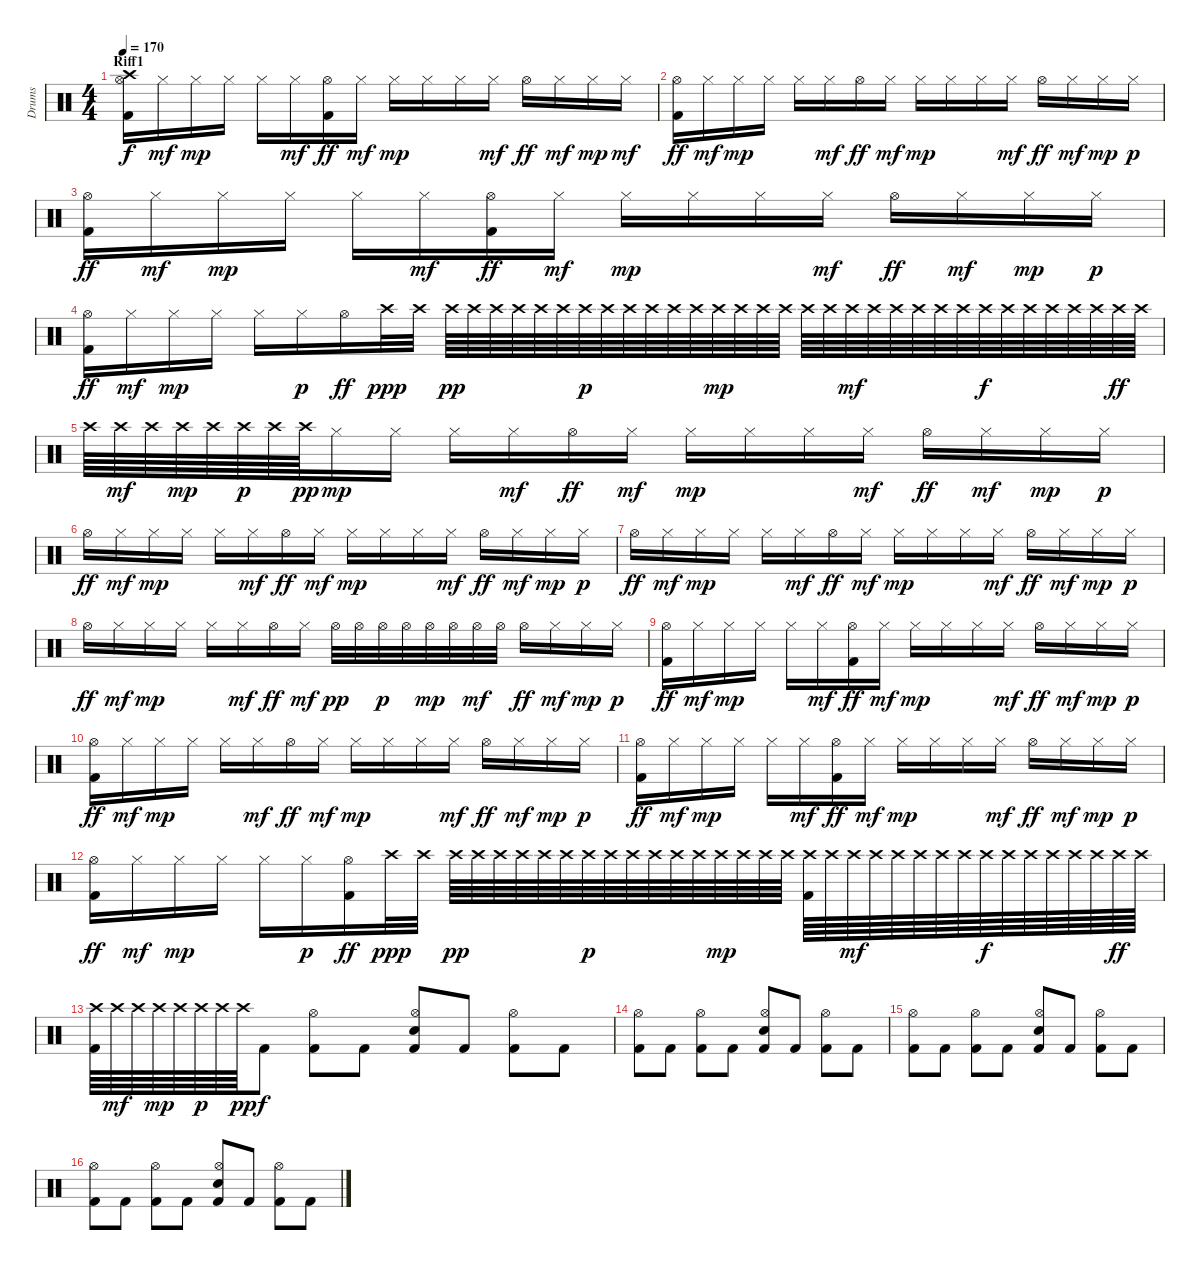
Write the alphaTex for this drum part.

\track ("Drums" "Drums") {instrument percussion}
\staff {score}
\articulation defaults
\ts (4 4)
\section ("" "Riff1")
\tempo 170
\clef neutral
\ks c
("Kick (hit) 2" "Hi-Hat (open)" "Crash high (hit)").16{dy f} "Hi-Hat (closed)".16{dy mf} "Hi-Hat (closed)".16{dy mp} "Hi-Hat (closed)".16 "Hi-Hat (closed)".16 "Hi-Hat (closed)".16{dy mf} ("Kick (hit) 2" "Hi-Hat (open)").16{dy ff} "Hi-Hat (closed)".16{dy mf} "Hi-Hat (closed)".16{dy mp} "Hi-Hat (closed)".16 "Hi-Hat (closed)".16 "Hi-Hat (closed)".16{dy mf} "Hi-Hat (open)".16{dy ff} "Hi-Hat (closed)".16{dy mf} "Hi-Hat (closed)".16{dy mp} "Hi-Hat (closed)".16{dy mf} |
("Kick (hit) 2" "Hi-Hat (open)").16{dy ff} "Hi-Hat (closed)".16{dy mf} "Hi-Hat (closed)".16{dy mp} "Hi-Hat (closed)".16 "Hi-Hat (closed)".16 "Hi-Hat (closed)".16{dy mf} "Hi-Hat (open)".16{dy ff} "Hi-Hat (closed)".16{dy mf} "Hi-Hat (closed)".16{dy mp} "Hi-Hat (closed)".16 "Hi-Hat (closed)".16 "Hi-Hat (closed)".16{dy mf} "Hi-Hat (open)".16{dy ff} "Hi-Hat (closed)".16{dy mf} "Hi-Hat (closed)".16{dy mp} "Hi-Hat (closed)".16{dy p} |
("Kick (hit) 2" "Hi-Hat (open)").16{dy ff} "Hi-Hat (closed)".16{dy mf} "Hi-Hat (closed)".16{dy mp} "Hi-Hat (closed)".16 "Hi-Hat (closed)".16 "Hi-Hat (closed)".16{dy mf} ("Kick (hit) 2" "Hi-Hat (open)").16{dy ff} "Hi-Hat (closed)".16{dy mf} "Hi-Hat (closed)".16{dy mp} "Hi-Hat (closed)".16 "Hi-Hat (closed)".16 "Hi-Hat (closed)".16{dy mf} "Hi-Hat (open)".16{dy ff} "Hi-Hat (closed)".16{dy mf} "Hi-Hat (closed)".16{dy mp} "Hi-Hat (closed)".16{dy p} |
("Kick (hit) 2" "Hi-Hat (open)").16{dy ff} "Hi-Hat (closed)".16{dy mf} "Hi-Hat (closed)".16{dy mp} "Hi-Hat (closed)".16 "Hi-Hat (closed)".16 "Hi-Hat (closed)".16{dy p} "Hi-Hat (open)".16{dy ff} "Crash high (hit)".32{dy ppp} "Crash high (hit)".32 "Crash high (hit)".64{dy pp} "Crash high (hit)".64 "Crash high (hit)".64 "Crash high (hit)".64 "Crash high (hit)".64 "Crash high (hit)".64 "Crash high (hit)".64{dy p} "Crash high (hit)".64 "Crash high (hit)".64 "Crash high (hit)".64 "Crash high (hit)".64 "Crash high (hit)".64 "Crash high (hit)".64{dy mp} "Crash high (hit)".64 "Crash high (hit)".64 "Crash high (hit)".64 "Crash high (hit)".64 "Crash high (hit)".64 "Crash high (hit)".64{dy mf} "Crash high (hit)".64 "Crash high (hit)".64 "Crash high (hit)".64 "Crash high (hit)".64 "Crash high (hit)".64 "Crash high (hit)".64{dy f} "Crash high (hit)".64 "Crash high (hit)".64 "Crash high (hit)".64 "Crash high (hit)".64 "Crash high (hit)".64 "Crash high (hit)".64{dy ff} "Crash high (hit)".64 |
"Crash high (hit)".64 "Crash high (hit)".64{dy mf} "Crash high (hit)".64 "Crash high (hit)".64{dy mp} "Crash high (hit)".64 "Crash high (hit)".64{dy p} "Crash high (hit)".64 "Crash high (hit)".64{dy pp} "Hi-Hat (closed)".16{dy mp} "Hi-Hat (closed)".16 "Hi-Hat (closed)".16 "Hi-Hat (closed)".16{dy mf} "Hi-Hat (open)".16{dy ff} "Hi-Hat (closed)".16{dy mf} "Hi-Hat (closed)".16{dy mp} "Hi-Hat (closed)".16 "Hi-Hat (closed)".16 "Hi-Hat (closed)".16{dy mf} "Hi-Hat (open)".16{dy ff} "Hi-Hat (closed)".16{dy mf} "Hi-Hat (closed)".16{dy mp} "Hi-Hat (closed)".16{dy p} |
"Hi-Hat (open)".16{dy ff} "Hi-Hat (closed)".16{dy mf} "Hi-Hat (closed)".16{dy mp} "Hi-Hat (closed)".16 "Hi-Hat (closed)".16 "Hi-Hat (closed)".16{dy mf} "Hi-Hat (open)".16{dy ff} "Hi-Hat (closed)".16{dy mf} "Hi-Hat (closed)".16{dy mp} "Hi-Hat (closed)".16 "Hi-Hat (closed)".16 "Hi-Hat (closed)".16{dy mf} "Hi-Hat (open)".16{dy ff} "Hi-Hat (closed)".16{dy mf} "Hi-Hat (closed)".16{dy mp} "Hi-Hat (closed)".16{dy p} |
"Hi-Hat (open)".16{dy ff} "Hi-Hat (closed)".16{dy mf} "Hi-Hat (closed)".16{dy mp} "Hi-Hat (closed)".16 "Hi-Hat (closed)".16 "Hi-Hat (closed)".16{dy mf} "Hi-Hat (open)".16{dy ff} "Hi-Hat (closed)".16{dy mf} "Hi-Hat (closed)".16{dy mp} "Hi-Hat (closed)".16 "Hi-Hat (closed)".16 "Hi-Hat (closed)".16{dy mf} "Hi-Hat (open)".16{dy ff} "Hi-Hat (closed)".16{dy mf} "Hi-Hat (closed)".16{dy mp} "Hi-Hat (closed)".16{dy p} |
"Hi-Hat (open)".16{dy ff} "Hi-Hat (closed)".16{dy mf} "Hi-Hat (closed)".16{dy mp} "Hi-Hat (closed)".16 "Hi-Hat (closed)".16 "Hi-Hat (closed)".16{dy mf} "Hi-Hat (open)".16{dy ff} "Hi-Hat (closed)".16{dy mf} "Hi-Hat (open)".32{dy pp} "Hi-Hat (open)".32 "Hi-Hat (open)".32{dy p} "Hi-Hat (open)".32 "Hi-Hat (open)".32{dy mp} "Hi-Hat (open)".32 "Hi-Hat (open)".32{dy mf} "Hi-Hat (open)".32 "Hi-Hat (open)".16{dy ff} "Hi-Hat (closed)".16{dy mf} "Hi-Hat (closed)".16{dy mp} "Hi-Hat (closed)".16{dy p} |
("Kick (hit) 2" "Hi-Hat (open)").16{dy ff} "Hi-Hat (closed)".16{dy mf} "Hi-Hat (closed)".16{dy mp} "Hi-Hat (closed)".16 "Hi-Hat (closed)".16 "Hi-Hat (closed)".16{dy mf} ("Kick (hit) 2" "Hi-Hat (open)").16{dy ff} "Hi-Hat (closed)".16{dy mf} "Hi-Hat (closed)".16{dy mp} "Hi-Hat (closed)".16 "Hi-Hat (closed)".16 "Hi-Hat (closed)".16{dy mf} "Hi-Hat (open)".16{dy ff} "Hi-Hat (closed)".16{dy mf} "Hi-Hat (closed)".16{dy mp} "Hi-Hat (closed)".16{dy p} |
("Kick (hit) 2" "Hi-Hat (open)").16{dy ff} "Hi-Hat (closed)".16{dy mf} "Hi-Hat (closed)".16{dy mp} "Hi-Hat (closed)".16 "Hi-Hat (closed)".16 "Hi-Hat (closed)".16{dy mf} "Hi-Hat (open)".16{dy ff} "Hi-Hat (closed)".16{dy mf} "Hi-Hat (closed)".16{dy mp} "Hi-Hat (closed)".16 "Hi-Hat (closed)".16 "Hi-Hat (closed)".16{dy mf} "Hi-Hat (open)".16{dy ff} "Hi-Hat (closed)".16{dy mf} "Hi-Hat (closed)".16{dy mp} "Hi-Hat (closed)".16{dy p} |
("Kick (hit) 2" "Hi-Hat (open)").16{dy ff} "Hi-Hat (closed)".16{dy mf} "Hi-Hat (closed)".16{dy mp} "Hi-Hat (closed)".16 "Hi-Hat (closed)".16 "Hi-Hat (closed)".16{dy mf} ("Kick (hit) 2" "Hi-Hat (open)").16{dy ff} "Hi-Hat (closed)".16{dy mf} "Hi-Hat (closed)".16{dy mp} "Hi-Hat (closed)".16 "Hi-Hat (closed)".16 "Hi-Hat (closed)".16{dy mf} "Hi-Hat (open)".16{dy ff} "Hi-Hat (closed)".16{dy mf} "Hi-Hat (closed)".16{dy mp} "Hi-Hat (closed)".16{dy p} |
("Kick (hit) 2" "Hi-Hat (open)").16{dy ff} "Hi-Hat (closed)".16{dy mf} "Hi-Hat (closed)".16{dy mp} "Hi-Hat (closed)".16 "Hi-Hat (closed)".16 "Hi-Hat (closed)".16{dy p} ("Kick (hit) 2" "Hi-Hat (open)").16{dy ff} "Crash high (hit)".32{dy ppp} "Crash high (hit)".32 "Crash high (hit)".64{dy pp} "Crash high (hit)".64 "Crash high (hit)".64 "Crash high (hit)".64 "Crash high (hit)".64 "Crash high (hit)".64 "Crash high (hit)".64{dy p} "Crash high (hit)".64 "Crash high (hit)".64 "Crash high (hit)".64 "Crash high (hit)".64 "Crash high (hit)".64 "Crash high (hit)".64{dy mp} "Crash high (hit)".64 "Crash high (hit)".64 "Crash high (hit)".64 ("Kick (hit) 2" "Crash high (hit)").64 "Crash high (hit)".64 "Crash high (hit)".64{dy mf} "Crash high (hit)".64 "Crash high (hit)".64 "Crash high (hit)".64 "Crash high (hit)".64 "Crash high (hit)".64 "Crash high (hit)".64{dy f} "Crash high (hit)".64 "Crash high (hit)".64 "Crash high (hit)".64 "Crash high (hit)".64 "Crash high (hit)".64 "Crash high (hit)".64{dy ff} "Crash high (hit)".64 |
("Kick (hit) 2" "Crash high (hit)").64 "Crash high (hit)".64{dy mf} "Crash high (hit)".64 "Crash high (hit)".64{dy mp} "Crash high (hit)".64 "Crash high (hit)".64{dy p} "Crash high (hit)".64 "Crash high (hit)".64{dy pp} "Kick (hit) 2".8{dy f} ("Kick (hit) 2" "Hi-Hat (open)").8 "Kick (hit) 2".8 ("Kick (hit) 2" "Hi-Hat (open)" "Electric Snare (hit)").8 "Kick (hit) 2".8 ("Kick (hit) 2" "Hi-Hat (open)").8 "Kick (hit) 2".8 |
("Kick (hit) 2" "Hi-Hat (open)").8 "Kick (hit) 2".8 ("Kick (hit) 2" "Hi-Hat (open)").8 "Kick (hit) 2".8 ("Kick (hit) 2" "Hi-Hat (open)" "Electric Snare (hit)").8 "Kick (hit) 2".8 ("Kick (hit) 2" "Hi-Hat (open)").8 "Kick (hit) 2".8 |
("Kick (hit) 2" "Hi-Hat (open)").8 "Kick (hit) 2".8 ("Kick (hit) 2" "Hi-Hat (open)").8 "Kick (hit) 2".8 ("Kick (hit) 2" "Hi-Hat (open)" "Electric Snare (hit)").8 "Kick (hit) 2".8 ("Kick (hit) 2" "Hi-Hat (open)").8 "Kick (hit) 2".8 |
("Kick (hit) 2" "Hi-Hat (open)").8 "Kick (hit) 2".8 ("Kick (hit) 2" "Hi-Hat (open)").8 "Kick (hit) 2".8 ("Kick (hit) 2" "Hi-Hat (open)" "Electric Snare (hit)").8 "Kick (hit) 2".8 ("Kick (hit) 2" "Hi-Hat (open)").8 "Kick (hit) 2".8
